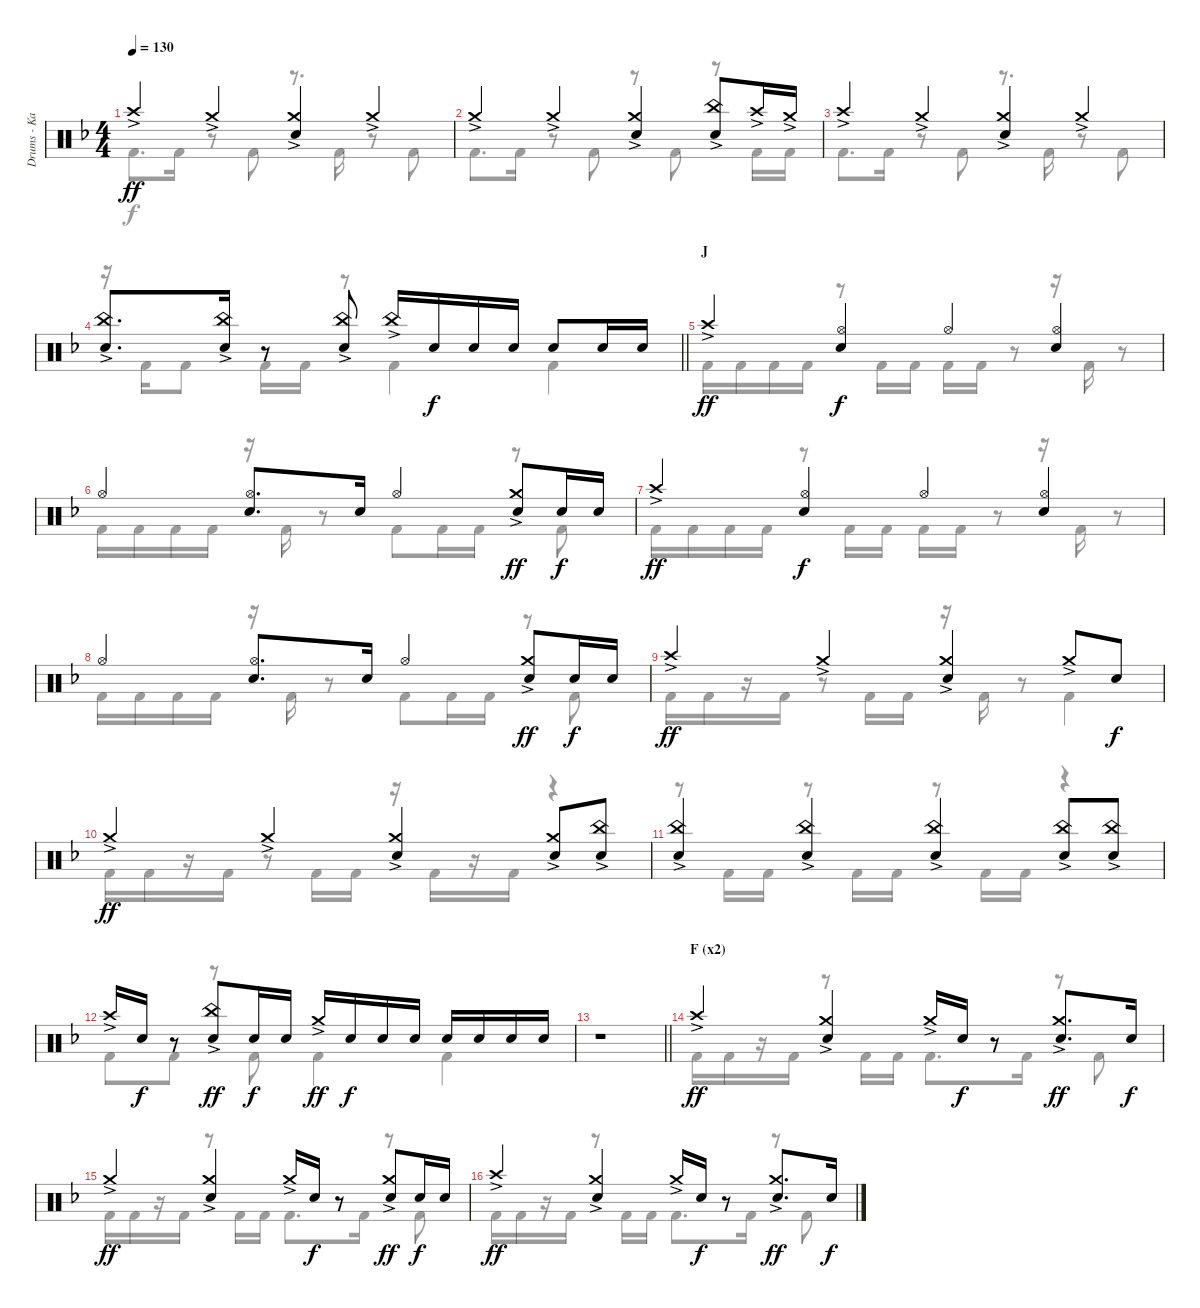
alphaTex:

\track ("Drums - Kai" "Drums - Ka") {instrument percussion}
\staff {score}
\articulation defaults
\voice
\ts (4 4)
\tempo 130
\clef neutral
\ks f "Crash high (hit)"{ac}.4{dy ff} "Crash medium (hit)"{ac}.4
("Crash medium (hit)"{ac} "Snare (hit) 2").4 "Crash medium (hit)"{ac}.4 |
"Crash medium (hit)"{ac}.4 "Crash medium (hit)"{ac}.4 ("Crash medium (hit)"{ac} "Snare (hit) 2").4 ("China (hit)"{ac} "Snare (hit) 2").8 "Crash high (hit)"{ac}.16 "Crash medium (hit)"{ac}.16 |
"Crash high (hit)"{ac}.4 "Crash medium (hit)"{ac}.4 ("Crash medium (hit)"{ac} "Snare (hit) 2").4 "Crash medium (hit)"{ac}.4 |
\barLineRight lightlight
("China (hit)"{ac} "Snare (hit) 2").8{d} ("China (hit)"{ac} "Snare (hit) 2").16 r.8 ("China (hit)"{ac} "Snare (hit) 2").8 "China (hit)"{ac}.16 "Snare (hit) 2".16{dy f} "Snare (hit) 2".16 "Snare (hit) 2".16 "Snare (hit) 2".8 "Snare (hit) 2".16 "Snare (hit) 2".16 |
\section ("" "J")
"Crash high (hit)"{ac}.4{dy ff} ("Hi-Hat (open)" "Snare (hit) 2").4{dy f} "Hi-Hat (open)".4 ("Hi-Hat (open)" "Snare (hit) 2").4 |
"Hi-Hat (open)".4 ("Hi-Hat (open)" "Snare (hit) 2").8{d} "Snare (hit) 2".16 "Hi-Hat (open)".4 ("Crash medium (hit)"{ac} "Snare (hit) 2").8{dy ff} "Snare (hit) 2".16{dy f} "Snare (hit) 2".16 |
"Crash high (hit)"{ac}.4{dy ff} ("Hi-Hat (open)" "Snare (hit) 2").4{dy f} "Hi-Hat (open)".4 ("Hi-Hat (open)" "Snare (hit) 2").4 |
"Hi-Hat (open)".4 ("Hi-Hat (open)" "Snare (hit) 2").8{d} "Snare (hit) 2".16 "Hi-Hat (open)".4 ("Crash medium (hit)"{ac} "Snare (hit) 2").8{dy ff} "Snare (hit) 2".16{dy f} "Snare (hit) 2".16 |
"Crash high (hit)"{ac}.4{dy ff} "Crash medium (hit)"{ac}.4 ("Crash medium (hit)"{ac} "Snare (hit) 2").4 "Crash medium (hit)"{ac}.8 "Snare (hit) 2".8{dy f} |
"Crash medium (hit)"{ac}.4{dy ff} "Crash medium (hit)"{ac}.4 ("Crash medium (hit)"{ac} "Snare (hit) 2").4 ("Crash medium (hit)"{ac} "Snare (hit) 2").8 ("China (hit)"{ac} "Snare (hit) 2").8 |
("China (hit)"{ac} "Snare (hit) 2").4 ("China (hit)"{ac} "Snare (hit) 2").4 ("China (hit)"{ac} "Snare (hit) 2").4 ("China (hit)"{ac} "Snare (hit) 2").8 ("China (hit)"{ac} "Snare (hit) 2").8 |
"Crash high (hit)"{ac}.16 "Snare (hit) 2".16{dy f} r.8 ("China (hit)"{ac} "Snare (hit) 2").8{dy ff} "Snare (hit) 2".16{dy f} "Snare (hit) 2".16 "Crash medium (hit)"{ac}.16{dy ff} "Snare (hit) 2".16{dy f} "Snare (hit) 2".16 "Snare (hit) 2".16 "Snare (hit) 2".16 "Snare (hit) 2".16 "Snare (hit) 2".16 "Snare (hit) 2".16 |
\barLineRight lightlight
r.1 |
\section ("" "F (x2)")
"Crash high (hit)"{ac}.4{dy ff} ("Crash medium (hit)"{ac} "Snare (hit) 2").4 "Crash medium (hit)"{ac}.16 "Snare (hit) 2".16{dy f} r.8 ("Crash medium (hit)"{ac} "Snare (hit) 2").8{d dy ff} "Snare (hit) 2".16{dy f} |
"Crash medium (hit)"{ac}.4{dy ff} ("Crash medium (hit)"{ac} "Snare (hit) 2").4 "Crash medium (hit)"{ac}.16 "Snare (hit) 2".16{dy f} r.8 ("Crash medium (hit)"{ac} "Snare (hit) 2").8{dy ff} "Snare (hit) 2".16{dy f} "Snare (hit) 2".16 |
"Crash high (hit)"{ac}.4{dy ff} ("Crash medium (hit)"{ac} "Snare (hit) 2").4 "Crash medium (hit)"{ac}.16 "Snare (hit) 2".16{dy f} r.8 ("Crash medium (hit)"{ac} "Snare (hit) 2").8{d dy ff} "Snare (hit) 2".16{dy f}
\voice
\clef neutral
\ottava regular
\simile none
\ks f "Kick (hit) 2".8{d dy f} "Kick (hit) 2".16
r.8 "Kick (hit) 2".8 r.8{d} "Kick (hit) 2".16 r.8 "Kick (hit) 2".8 |
"Kick (hit) 2".8{d} "Kick (hit) 2".16 r.8 "Kick (hit) 2".8 r.8 "Kick (hit) 2".8 r.8 "Kick (hit) 2".16 "Kick (hit) 2".16 |
"Kick (hit) 2".8{d} "Kick (hit) 2".16 r.8 "Kick (hit) 2".8 r.8{d} "Kick (hit) 2".16 r.8 "Kick (hit) 2".8 |
\barLineRight lightlight
r.16 "Kick (hit) 2".16 "Kick (hit) 2".8 "Kick (hit) 2".16 "Kick (hit) 2".16 r.8 "Kick (hit) 2".4 "Kick (hit) 2".4 |
"Kick (hit) 2".16 "Kick (hit) 2".16 "Kick (hit) 2".16 "Kick (hit) 2".16 r.8 "Kick (hit) 2".16 "Kick (hit) 2".16 "Kick (hit) 2".16 "Kick (hit) 2".16 r.8 r.16 "Kick (hit) 2".16 r.8 |
"Kick (hit) 2".16 "Kick (hit) 2".16 "Kick (hit) 2".16 "Kick (hit) 2".16 r.16 "Kick (hit) 2".16 r.8 "Kick (hit) 2".8 "Kick (hit) 2".16 "Kick (hit) 2".16 r.8 "Kick (hit) 2".8 |
"Kick (hit) 2".16 "Kick (hit) 2".16 "Kick (hit) 2".16 "Kick (hit) 2".16 r.8 "Kick (hit) 2".16 "Kick (hit) 2".16 "Kick (hit) 2".16 "Kick (hit) 2".16 r.8 r.16 "Kick (hit) 2".16 r.8 |
"Kick (hit) 2".16 "Kick (hit) 2".16 "Kick (hit) 2".16 "Kick (hit) 2".16 r.16 "Kick (hit) 2".16 r.8 "Kick (hit) 2".8 "Kick (hit) 2".16 "Kick (hit) 2".16 r.8 "Kick (hit) 2".8 |
"Kick (hit) 2".16 "Kick (hit) 2".16 r.16 "Kick (hit) 2".16 r.8 "Kick (hit) 2".16 "Kick (hit) 2".16 r.16 "Kick (hit) 2".16 r.8 "Kick (hit) 2".4 |
"Kick (hit) 2".16 "Kick (hit) 2".16 r.16 "Kick (hit) 2".16 r.8 "Kick (hit) 2".16 "Kick (hit) 2".16 r.16 "Kick (hit) 2".16 r.16 "Kick (hit) 2".16 r.4 |
r.8 "Kick (hit) 2".16 "Kick (hit) 2".16 r.8 "Kick (hit) 2".16 "Kick (hit) 2".16 r.8 "Kick (hit) 2".16 "Kick (hit) 2".16 r.4 |
"Kick (hit) 2".8 "Kick (hit) 2".8 r.8 "Kick (hit) 2".8 "Kick (hit) 2".4 "Kick (hit) 2".4 |
\barLineRight lightlight
|
"Kick (hit) 2".16 "Kick (hit) 2".16 r.16 "Kick (hit) 2".16 r.8 "Kick (hit) 2".16 "Kick (hit) 2".16 "Kick (hit) 2".8{d} "Kick (hit) 2".16 r.8 "Kick (hit) 2".8 |
"Kick (hit) 2".16 "Kick (hit) 2".16 r.16 "Kick (hit) 2".16 r.8 "Kick (hit) 2".16 "Kick (hit) 2".16 "Kick (hit) 2".8{d} "Kick (hit) 2".16 r.8 "Kick (hit) 2".8 |
"Kick (hit) 2".16 "Kick (hit) 2".16 r.16 "Kick (hit) 2".16 r.8 "Kick (hit) 2".16 "Kick (hit) 2".16 "Kick (hit) 2".8{d} "Kick (hit) 2".16 r.8 "Kick (hit) 2".8
